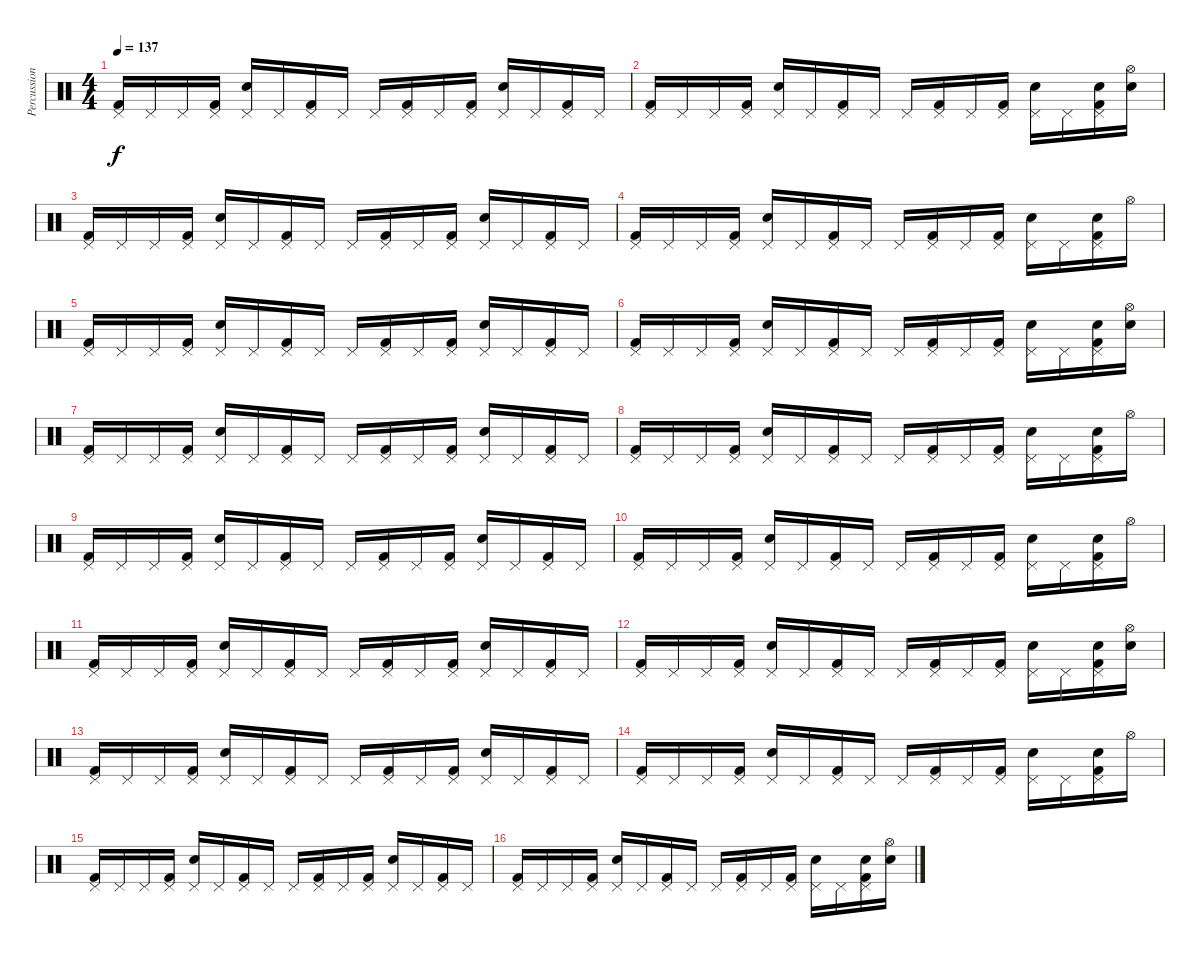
\track ("Percussion" "Percussion") {instrument percussion}
\staff {score}
\articulation defaults
\ts (4 4)
\tempo 137
\clef neutral
\ks c
("Pedal Hi-Hat (hit)" "Kick (hit) 2").16{dy f} "Pedal Hi-Hat (hit)".16 "Pedal Hi-Hat (hit)".16 ("Pedal Hi-Hat (hit)" "Kick (hit) 2").16 ("Pedal Hi-Hat (hit)" "Snare (hit) 2").16 "Pedal Hi-Hat (hit)".16 ("Pedal Hi-Hat (hit)" "Kick (hit) 2").16 "Pedal Hi-Hat (hit)".16 "Pedal Hi-Hat (hit)".16 ("Pedal Hi-Hat (hit)" "Kick (hit) 2").16 "Pedal Hi-Hat (hit)".16 ("Pedal Hi-Hat (hit)" "Kick (hit) 2").16 ("Pedal Hi-Hat (hit)" "Snare (hit) 2").16 "Pedal Hi-Hat (hit)".16 ("Pedal Hi-Hat (hit)" "Kick (hit) 2").16 "Pedal Hi-Hat (hit)".16 |
("Pedal Hi-Hat (hit)" "Kick (hit) 2").16 "Pedal Hi-Hat (hit)".16 "Pedal Hi-Hat (hit)".16 ("Pedal Hi-Hat (hit)" "Kick (hit) 2").16 ("Pedal Hi-Hat (hit)" "Snare (hit) 2").16 "Pedal Hi-Hat (hit)".16 ("Pedal Hi-Hat (hit)" "Kick (hit) 2").16 "Pedal Hi-Hat (hit)".16 "Pedal Hi-Hat (hit)".16 ("Pedal Hi-Hat (hit)" "Kick (hit) 2").16 "Pedal Hi-Hat (hit)".16 ("Pedal Hi-Hat (hit)" "Kick (hit) 2").16 ("Pedal Hi-Hat (hit)" "Snare (hit) 2").16 "Pedal Hi-Hat (hit)".16 ("Pedal Hi-Hat (hit)" "Snare (hit) 2" "Kick (hit) 2").16 ("Hi-Hat (open)" "Snare (hit) 2").16 |
("Pedal Hi-Hat (hit)" "Kick (hit) 2").16 "Pedal Hi-Hat (hit)".16 "Pedal Hi-Hat (hit)".16 ("Pedal Hi-Hat (hit)" "Kick (hit) 2").16 ("Pedal Hi-Hat (hit)" "Snare (hit) 2").16 "Pedal Hi-Hat (hit)".16 ("Pedal Hi-Hat (hit)" "Kick (hit) 2").16 "Pedal Hi-Hat (hit)".16 "Pedal Hi-Hat (hit)".16 ("Pedal Hi-Hat (hit)" "Kick (hit) 2").16 "Pedal Hi-Hat (hit)".16 ("Pedal Hi-Hat (hit)" "Kick (hit) 2").16 ("Pedal Hi-Hat (hit)" "Snare (hit) 2").16 "Pedal Hi-Hat (hit)".16 ("Pedal Hi-Hat (hit)" "Kick (hit) 2").16 "Pedal Hi-Hat (hit)".16 |
("Pedal Hi-Hat (hit)" "Kick (hit) 2").16 "Pedal Hi-Hat (hit)".16 "Pedal Hi-Hat (hit)".16 ("Pedal Hi-Hat (hit)" "Kick (hit) 2").16 ("Pedal Hi-Hat (hit)" "Snare (hit) 2").16 "Pedal Hi-Hat (hit)".16 ("Pedal Hi-Hat (hit)" "Kick (hit) 2").16 "Pedal Hi-Hat (hit)".16 "Pedal Hi-Hat (hit)".16 ("Pedal Hi-Hat (hit)" "Kick (hit) 2").16 "Pedal Hi-Hat (hit)".16 ("Pedal Hi-Hat (hit)" "Kick (hit) 2").16 ("Pedal Hi-Hat (hit)" "Snare (hit) 2").16 "Pedal Hi-Hat (hit)".16 ("Pedal Hi-Hat (hit)" "Snare (hit) 2" "Kick (hit) 2").16 "Hi-Hat (open)".16 |
("Pedal Hi-Hat (hit)" "Kick (hit) 2").16 "Pedal Hi-Hat (hit)".16 "Pedal Hi-Hat (hit)".16 ("Pedal Hi-Hat (hit)" "Kick (hit) 2").16 ("Pedal Hi-Hat (hit)" "Snare (hit) 2").16 "Pedal Hi-Hat (hit)".16 ("Pedal Hi-Hat (hit)" "Kick (hit) 2").16 "Pedal Hi-Hat (hit)".16 "Pedal Hi-Hat (hit)".16 ("Pedal Hi-Hat (hit)" "Kick (hit) 2").16 "Pedal Hi-Hat (hit)".16 ("Pedal Hi-Hat (hit)" "Kick (hit) 2").16 ("Pedal Hi-Hat (hit)" "Snare (hit) 2").16 "Pedal Hi-Hat (hit)".16 ("Pedal Hi-Hat (hit)" "Kick (hit) 2").16 "Pedal Hi-Hat (hit)".16 |
("Pedal Hi-Hat (hit)" "Kick (hit) 2").16 "Pedal Hi-Hat (hit)".16 "Pedal Hi-Hat (hit)".16 ("Pedal Hi-Hat (hit)" "Kick (hit) 2").16 ("Pedal Hi-Hat (hit)" "Snare (hit) 2").16 "Pedal Hi-Hat (hit)".16 ("Pedal Hi-Hat (hit)" "Kick (hit) 2").16 "Pedal Hi-Hat (hit)".16 "Pedal Hi-Hat (hit)".16 ("Pedal Hi-Hat (hit)" "Kick (hit) 2").16 "Pedal Hi-Hat (hit)".16 ("Pedal Hi-Hat (hit)" "Kick (hit) 2").16 ("Pedal Hi-Hat (hit)" "Snare (hit) 2").16 "Pedal Hi-Hat (hit)".16 ("Pedal Hi-Hat (hit)" "Snare (hit) 2" "Kick (hit) 2").16 ("Hi-Hat (open)" "Snare (hit) 2").16 |
("Pedal Hi-Hat (hit)" "Kick (hit) 2").16 "Pedal Hi-Hat (hit)".16 "Pedal Hi-Hat (hit)".16 ("Pedal Hi-Hat (hit)" "Kick (hit) 2").16 ("Pedal Hi-Hat (hit)" "Snare (hit) 2").16 "Pedal Hi-Hat (hit)".16 ("Pedal Hi-Hat (hit)" "Kick (hit) 2").16 "Pedal Hi-Hat (hit)".16 "Pedal Hi-Hat (hit)".16 ("Pedal Hi-Hat (hit)" "Kick (hit) 2").16 "Pedal Hi-Hat (hit)".16 ("Pedal Hi-Hat (hit)" "Kick (hit) 2").16 ("Pedal Hi-Hat (hit)" "Snare (hit) 2").16 "Pedal Hi-Hat (hit)".16 ("Pedal Hi-Hat (hit)" "Kick (hit) 2").16 "Pedal Hi-Hat (hit)".16 |
("Pedal Hi-Hat (hit)" "Kick (hit) 2").16 "Pedal Hi-Hat (hit)".16 "Pedal Hi-Hat (hit)".16 ("Pedal Hi-Hat (hit)" "Kick (hit) 2").16 ("Pedal Hi-Hat (hit)" "Snare (hit) 2").16 "Pedal Hi-Hat (hit)".16 ("Pedal Hi-Hat (hit)" "Kick (hit) 2").16 "Pedal Hi-Hat (hit)".16 "Pedal Hi-Hat (hit)".16 ("Pedal Hi-Hat (hit)" "Kick (hit) 2").16 "Pedal Hi-Hat (hit)".16 ("Pedal Hi-Hat (hit)" "Kick (hit) 2").16 ("Pedal Hi-Hat (hit)" "Snare (hit) 2").16 "Pedal Hi-Hat (hit)".16 ("Pedal Hi-Hat (hit)" "Snare (hit) 2" "Kick (hit) 2").16 "Hi-Hat (open)".16 |
("Pedal Hi-Hat (hit)" "Kick (hit) 2").16 "Pedal Hi-Hat (hit)".16 "Pedal Hi-Hat (hit)".16 ("Pedal Hi-Hat (hit)" "Kick (hit) 2").16 ("Pedal Hi-Hat (hit)" "Snare (hit) 2").16 "Pedal Hi-Hat (hit)".16 ("Pedal Hi-Hat (hit)" "Kick (hit) 2").16 "Pedal Hi-Hat (hit)".16 "Pedal Hi-Hat (hit)".16 ("Pedal Hi-Hat (hit)" "Kick (hit) 2").16 "Pedal Hi-Hat (hit)".16 ("Pedal Hi-Hat (hit)" "Kick (hit) 2").16 ("Pedal Hi-Hat (hit)" "Snare (hit) 2").16 "Pedal Hi-Hat (hit)".16 ("Pedal Hi-Hat (hit)" "Kick (hit) 2").16 "Pedal Hi-Hat (hit)".16 |
("Pedal Hi-Hat (hit)" "Kick (hit) 2").16 "Pedal Hi-Hat (hit)".16 "Pedal Hi-Hat (hit)".16 ("Pedal Hi-Hat (hit)" "Kick (hit) 2").16 ("Pedal Hi-Hat (hit)" "Snare (hit) 2").16 "Pedal Hi-Hat (hit)".16 ("Pedal Hi-Hat (hit)" "Kick (hit) 2").16 "Pedal Hi-Hat (hit)".16 "Pedal Hi-Hat (hit)".16 ("Pedal Hi-Hat (hit)" "Kick (hit) 2").16 "Pedal Hi-Hat (hit)".16 ("Pedal Hi-Hat (hit)" "Kick (hit) 2").16 ("Pedal Hi-Hat (hit)" "Snare (hit) 2").16 "Pedal Hi-Hat (hit)".16 ("Pedal Hi-Hat (hit)" "Snare (hit) 2" "Kick (hit) 2").16 "Hi-Hat (open)".16 |
("Pedal Hi-Hat (hit)" "Kick (hit) 2").16 "Pedal Hi-Hat (hit)".16 "Pedal Hi-Hat (hit)".16 ("Pedal Hi-Hat (hit)" "Kick (hit) 2").16 ("Pedal Hi-Hat (hit)" "Snare (hit) 2").16 "Pedal Hi-Hat (hit)".16 ("Pedal Hi-Hat (hit)" "Kick (hit) 2").16 "Pedal Hi-Hat (hit)".16 "Pedal Hi-Hat (hit)".16 ("Pedal Hi-Hat (hit)" "Kick (hit) 2").16 "Pedal Hi-Hat (hit)".16 ("Pedal Hi-Hat (hit)" "Kick (hit) 2").16 ("Pedal Hi-Hat (hit)" "Snare (hit) 2").16 "Pedal Hi-Hat (hit)".16 ("Pedal Hi-Hat (hit)" "Kick (hit) 2").16 "Pedal Hi-Hat (hit)".16 |
("Pedal Hi-Hat (hit)" "Kick (hit) 2").16 "Pedal Hi-Hat (hit)".16 "Pedal Hi-Hat (hit)".16 ("Pedal Hi-Hat (hit)" "Kick (hit) 2").16 ("Pedal Hi-Hat (hit)" "Snare (hit) 2").16 "Pedal Hi-Hat (hit)".16 ("Pedal Hi-Hat (hit)" "Kick (hit) 2").16 "Pedal Hi-Hat (hit)".16 "Pedal Hi-Hat (hit)".16 ("Pedal Hi-Hat (hit)" "Kick (hit) 2").16 "Pedal Hi-Hat (hit)".16 ("Pedal Hi-Hat (hit)" "Kick (hit) 2").16 ("Pedal Hi-Hat (hit)" "Snare (hit) 2").16 "Pedal Hi-Hat (hit)".16 ("Pedal Hi-Hat (hit)" "Snare (hit) 2" "Kick (hit) 2").16 ("Hi-Hat (open)" "Snare (hit) 2").16 |
("Pedal Hi-Hat (hit)" "Kick (hit) 2").16 "Pedal Hi-Hat (hit)".16 "Pedal Hi-Hat (hit)".16 ("Pedal Hi-Hat (hit)" "Kick (hit) 2").16 ("Pedal Hi-Hat (hit)" "Snare (hit) 2").16 "Pedal Hi-Hat (hit)".16 ("Pedal Hi-Hat (hit)" "Kick (hit) 2").16 "Pedal Hi-Hat (hit)".16 "Pedal Hi-Hat (hit)".16 ("Pedal Hi-Hat (hit)" "Kick (hit) 2").16 "Pedal Hi-Hat (hit)".16 ("Pedal Hi-Hat (hit)" "Kick (hit) 2").16 ("Pedal Hi-Hat (hit)" "Snare (hit) 2").16 "Pedal Hi-Hat (hit)".16 ("Pedal Hi-Hat (hit)" "Kick (hit) 2").16 "Pedal Hi-Hat (hit)".16 |
("Pedal Hi-Hat (hit)" "Kick (hit) 2").16 "Pedal Hi-Hat (hit)".16 "Pedal Hi-Hat (hit)".16 ("Pedal Hi-Hat (hit)" "Kick (hit) 2").16 ("Pedal Hi-Hat (hit)" "Snare (hit) 2").16 "Pedal Hi-Hat (hit)".16 ("Pedal Hi-Hat (hit)" "Kick (hit) 2").16 "Pedal Hi-Hat (hit)".16 "Pedal Hi-Hat (hit)".16 ("Pedal Hi-Hat (hit)" "Kick (hit) 2").16 "Pedal Hi-Hat (hit)".16 ("Pedal Hi-Hat (hit)" "Kick (hit) 2").16 ("Pedal Hi-Hat (hit)" "Snare (hit) 2").16 "Pedal Hi-Hat (hit)".16 ("Pedal Hi-Hat (hit)" "Snare (hit) 2" "Kick (hit) 2").16 "Hi-Hat (open)".16 |
("Pedal Hi-Hat (hit)" "Kick (hit) 2").16 "Pedal Hi-Hat (hit)".16 "Pedal Hi-Hat (hit)".16 ("Pedal Hi-Hat (hit)" "Kick (hit) 2").16 ("Pedal Hi-Hat (hit)" "Snare (hit) 2").16 "Pedal Hi-Hat (hit)".16 ("Pedal Hi-Hat (hit)" "Kick (hit) 2").16 "Pedal Hi-Hat (hit)".16 "Pedal Hi-Hat (hit)".16 ("Pedal Hi-Hat (hit)" "Kick (hit) 2").16 "Pedal Hi-Hat (hit)".16 ("Pedal Hi-Hat (hit)" "Kick (hit) 2").16 ("Pedal Hi-Hat (hit)" "Snare (hit) 2").16 "Pedal Hi-Hat (hit)".16 ("Pedal Hi-Hat (hit)" "Kick (hit) 2").16 "Pedal Hi-Hat (hit)".16 |
("Pedal Hi-Hat (hit)" "Kick (hit) 2").16 "Pedal Hi-Hat (hit)".16 "Pedal Hi-Hat (hit)".16 ("Pedal Hi-Hat (hit)" "Kick (hit) 2").16 ("Pedal Hi-Hat (hit)" "Snare (hit) 2").16 "Pedal Hi-Hat (hit)".16 ("Pedal Hi-Hat (hit)" "Kick (hit) 2").16 "Pedal Hi-Hat (hit)".16 "Pedal Hi-Hat (hit)".16 ("Pedal Hi-Hat (hit)" "Kick (hit) 2").16 "Pedal Hi-Hat (hit)".16 ("Pedal Hi-Hat (hit)" "Kick (hit) 2").16 ("Pedal Hi-Hat (hit)" "Snare (hit) 2").16 "Pedal Hi-Hat (hit)".16 ("Pedal Hi-Hat (hit)" "Snare (hit) 2" "Kick (hit) 2").16 ("Hi-Hat (open)" "Snare (hit) 2").16
